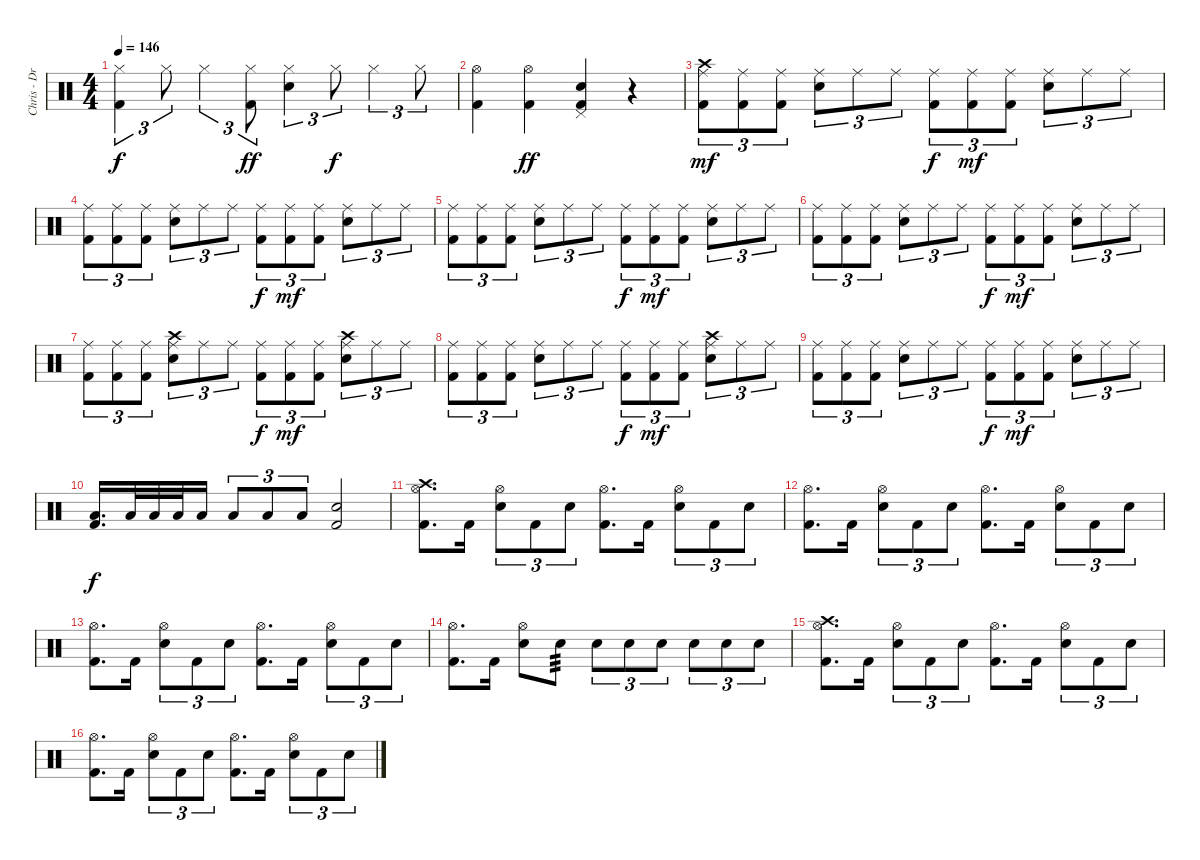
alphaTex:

\track ("Chris - Drums" "Chris - Dr") {instrument percussion}
\staff {score}
\articulation defaults
\ts (4 4)
\tempo 146
\clef neutral
\ks c
("Hi-Hat (closed)" "Kick (hit) 2").4{tu (3 2) dy f} "Hi-Hat (closed)".8{tu (3 2)} "Hi-Hat (closed)".4{tu (3 2)} ("Hi-Hat (closed)" "Kick (hit) 2").8{tu (3 2) dy ff} ("Hi-Hat (closed)" "Electric Snare (hit)").4{tu (3 2)} "Hi-Hat (closed)".8{tu (3 2) dy f} "Hi-Hat (closed)".4{tu (3 2)} "Hi-Hat (closed)".8{tu (3 2)} |
("Hi-Hat (open)" "Kick (hit) 2").4 ("Hi-Hat (open)" "Kick (hit) 2").4{dy ff} ("Pedal Hi-Hat (hit)" "Electric Snare (hit)" "Kick (hit) 2").4 r.4 |
("Crash high (hit)" "Ride (middle)" "Kick (hit) 2").8{tu (3 2) dy mf} ("Ride (middle)" "Kick (hit) 2").8{tu (3 2)} ("Ride (middle)" "Kick (hit) 2").8{tu (3 2)} ("Ride (middle)" "Electric Snare (hit)").8{tu (3 2)} "Ride (middle)".8{tu (3 2)} "Ride (middle)".8{tu (3 2)} ("Ride (middle)" "Kick (hit) 2").8{tu (3 2) dy f} ("Ride (middle)" "Kick (hit) 2").8{tu (3 2) dy mf} ("Ride (middle)" "Kick (hit) 2").8{tu (3 2)} ("Ride (middle)" "Electric Snare (hit)").8{tu (3 2)} "Ride (middle)".8{tu (3 2)} "Ride (middle)".8{tu (3 2)} |
("Ride (middle)" "Kick (hit) 2").8{tu (3 2)} ("Ride (middle)" "Kick (hit) 2").8{tu (3 2)} ("Ride (middle)" "Kick (hit) 2").8{tu (3 2)} ("Ride (middle)" "Electric Snare (hit)").8{tu (3 2)} "Ride (middle)".8{tu (3 2)} "Ride (middle)".8{tu (3 2)} ("Ride (middle)" "Kick (hit) 2").8{tu (3 2) dy f} ("Ride (middle)" "Kick (hit) 2").8{tu (3 2) dy mf} ("Ride (middle)" "Kick (hit) 2").8{tu (3 2)} ("Ride (middle)" "Electric Snare (hit)").8{tu (3 2)} "Ride (middle)".8{tu (3 2)} "Ride (middle)".8{tu (3 2)} |
("Ride (middle)" "Kick (hit) 2").8{tu (3 2)} ("Ride (middle)" "Kick (hit) 2").8{tu (3 2)} ("Ride (middle)" "Kick (hit) 2").8{tu (3 2)} ("Ride (middle)" "Electric Snare (hit)").8{tu (3 2)} "Ride (middle)".8{tu (3 2)} "Ride (middle)".8{tu (3 2)} ("Ride (middle)" "Kick (hit) 2").8{tu (3 2) dy f} ("Ride (middle)" "Kick (hit) 2").8{tu (3 2) dy mf} ("Ride (middle)" "Kick (hit) 2").8{tu (3 2)} ("Ride (middle)" "Electric Snare (hit)").8{tu (3 2)} "Ride (middle)".8{tu (3 2)} "Ride (middle)".8{tu (3 2)} |
("Ride (middle)" "Kick (hit) 2").8{tu (3 2)} ("Ride (middle)" "Kick (hit) 2").8{tu (3 2)} ("Ride (middle)" "Kick (hit) 2").8{tu (3 2)} ("Ride (middle)" "Electric Snare (hit)").8{tu (3 2)} "Ride (middle)".8{tu (3 2)} "Ride (middle)".8{tu (3 2)} ("Ride (middle)" "Kick (hit) 2").8{tu (3 2) dy f} ("Ride (middle)" "Kick (hit) 2").8{tu (3 2) dy mf} ("Ride (middle)" "Kick (hit) 2").8{tu (3 2)} ("Ride (middle)" "Electric Snare (hit)").8{tu (3 2)} "Ride (middle)".8{tu (3 2)} "Ride (middle)".8{tu (3 2)} |
("Ride (middle)" "Kick (hit) 2").8{tu (3 2)} ("Ride (middle)" "Kick (hit) 2").8{tu (3 2)} ("Ride (middle)" "Kick (hit) 2").8{tu (3 2)} ("Crash high (hit)" "Ride (middle)" "Electric Snare (hit)").8{tu (3 2)} "Ride (middle)".8{tu (3 2)} "Ride (middle)".8{tu (3 2)} ("Ride (middle)" "Kick (hit) 2").8{tu (3 2) dy f} ("Ride (middle)" "Kick (hit) 2").8{tu (3 2) dy mf} ("Ride (middle)" "Kick (hit) 2").8{tu (3 2)} ("Crash high (hit)" "Ride (middle)" "Electric Snare (hit)").8{tu (3 2)} "Ride (middle)".8{tu (3 2)} "Ride (middle)".8{tu (3 2)} |
("Ride (middle)" "Kick (hit) 2").8{tu (3 2)} ("Ride (middle)" "Kick (hit) 2").8{tu (3 2)} ("Ride (middle)" "Kick (hit) 2").8{tu (3 2)} ("Ride (middle)" "Electric Snare (hit)").8{tu (3 2)} "Ride (middle)".8{tu (3 2)} "Ride (middle)".8{tu (3 2)} ("Ride (middle)" "Kick (hit) 2").8{tu (3 2) dy f} ("Ride (middle)" "Kick (hit) 2").8{tu (3 2) dy mf} ("Ride (middle)" "Kick (hit) 2").8{tu (3 2)} ("Crash high (hit)" "Ride (middle)" "Electric Snare (hit)").8{tu (3 2)} "Ride (middle)".8{tu (3 2)} "Ride (middle)".8{tu (3 2)} |
("Ride (middle)" "Kick (hit) 2").8{tu (3 2)} ("Ride (middle)" "Kick (hit) 2").8{tu (3 2)} ("Ride (middle)" "Kick (hit) 2").8{tu (3 2)} ("Ride (middle)" "Electric Snare (hit)").8{tu (3 2)} "Ride (middle)".8{tu (3 2)} "Ride (middle)".8{tu (3 2)} ("Ride (middle)" "Kick (hit) 2").8{tu (3 2) dy f} ("Ride (middle)" "Kick (hit) 2").8{tu (3 2) dy mf} ("Ride (middle)" "Kick (hit) 2").8{tu (3 2)} ("Ride (middle)" "Electric Snare (hit)").8{tu (3 2)} "Ride (middle)".8{tu (3 2)} "Ride (middle)".8{tu (3 2)} |
("Low Tom (hit)" "Kick (hit) 2").16{d dy f} "Low Tom (hit)".32 "Low Tom (hit)".32 "Low Tom (hit)".32 "Low Tom (hit)".16 "Low Tom (hit)".8{tu (3 2)} "Low Tom (hit)".8{tu (3 2)} "Low Tom (hit)".8{tu (3 2)} ("Electric Snare (hit)" "Kick (hit) 2").2 |
("Crash high (hit)" "Hi-Hat (open)" "Kick (hit) 2").8{d} "Kick (hit) 2".16 ("Hi-Hat (open)" "Electric Snare (hit)").8{tu (3 2)} "Kick (hit) 2".8{tu (3 2)} "Electric Snare (hit)".8{tu (3 2)} ("Hi-Hat (open)" "Kick (hit) 2").8{d} "Kick (hit) 2".16 ("Hi-Hat (open)" "Electric Snare (hit)").8{tu (3 2)} "Kick (hit) 2".8{tu (3 2)} "Electric Snare (hit)".8{tu (3 2)} |
("Hi-Hat (open)" "Kick (hit) 2").8{d} "Kick (hit) 2".16 ("Hi-Hat (open)" "Electric Snare (hit)").8{tu (3 2)} "Kick (hit) 2".8{tu (3 2)} "Electric Snare (hit)".8{tu (3 2)} ("Hi-Hat (open)" "Kick (hit) 2").8{d} "Kick (hit) 2".16 ("Hi-Hat (open)" "Electric Snare (hit)").8{tu (3 2)} "Kick (hit) 2".8{tu (3 2)} "Electric Snare (hit)".8{tu (3 2)} |
("Hi-Hat (open)" "Kick (hit) 2").8{d} "Kick (hit) 2".16 ("Hi-Hat (open)" "Electric Snare (hit)").8{tu (3 2)} "Kick (hit) 2".8{tu (3 2)} "Electric Snare (hit)".8{tu (3 2)} ("Hi-Hat (open)" "Kick (hit) 2").8{d} "Kick (hit) 2".16 ("Hi-Hat (open)" "Electric Snare (hit)").8{tu (3 2)} "Kick (hit) 2".8{tu (3 2)} "Electric Snare (hit)".8{tu (3 2)} |
("Hi-Hat (open)" "Kick (hit) 2").8{d} "Kick (hit) 2".16 ("Hi-Hat (open)" "Electric Snare (hit)").8 "Electric Snare (hit)".8{tp 3} "Electric Snare (hit)".8{tu (3 2)} "Electric Snare (hit)".8{tu (3 2)} "Electric Snare (hit)".8{tu (3 2)} "Electric Snare (hit)".8{tu (3 2)} "Electric Snare (hit)".8{tu (3 2)} "Electric Snare (hit)".8{tu (3 2)} |
("Crash high (hit)" "Hi-Hat (open)" "Kick (hit) 2").8{d} "Kick (hit) 2".16 ("Hi-Hat (open)" "Electric Snare (hit)").8{tu (3 2)} "Kick (hit) 2".8{tu (3 2)} "Electric Snare (hit)".8{tu (3 2)} ("Hi-Hat (open)" "Kick (hit) 2").8{d} "Kick (hit) 2".16 ("Hi-Hat (open)" "Electric Snare (hit)").8{tu (3 2)} "Kick (hit) 2".8{tu (3 2)} "Electric Snare (hit)".8{tu (3 2)} |
("Hi-Hat (open)" "Kick (hit) 2").8{d} "Kick (hit) 2".16 ("Hi-Hat (open)" "Electric Snare (hit)").8{tu (3 2)} "Kick (hit) 2".8{tu (3 2)} "Electric Snare (hit)".8{tu (3 2)} ("Hi-Hat (open)" "Kick (hit) 2").8{d} "Kick (hit) 2".16 ("Hi-Hat (open)" "Electric Snare (hit)").8{tu (3 2)} "Kick (hit) 2".8{tu (3 2)} "Electric Snare (hit)".8{tu (3 2)}
